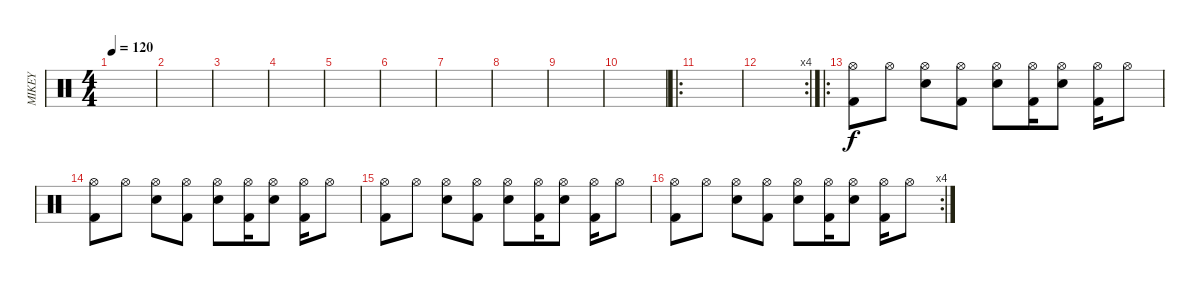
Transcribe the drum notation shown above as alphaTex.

\track ("MIKEY" "MIKEY") {instrument percussion}
\staff {score}
\articulation defaults
\ts (4 4)
\tempo 120
\clef neutral
\ks c
|
|
|
|
|
|
|
|
|
|
\ro
|
\rc 4
|
\ro
("Kick (hit) 2" "Hi-Hat (open)").8{dy f} "Hi-Hat (open)".8 ("Snare (hit) 2" "Hi-Hat (open)").8 ("Kick (hit) 2" "Hi-Hat (open)").8 ("Snare (hit) 2" "Hi-Hat (open)").8 ("Kick (hit) 2" "Hi-Hat (open)").16 ("Snare (hit) 2" "Hi-Hat (open)").8 ("Kick (hit) 2" "Hi-Hat (open)").16 "Hi-Hat (open)".8 |
("Kick (hit) 2" "Hi-Hat (open)").8 "Hi-Hat (open)".8 ("Snare (hit) 2" "Hi-Hat (open)").8 ("Kick (hit) 2" "Hi-Hat (open)").8 ("Snare (hit) 2" "Hi-Hat (open)").8 ("Kick (hit) 2" "Hi-Hat (open)").16 ("Snare (hit) 2" "Hi-Hat (open)").8 ("Kick (hit) 2" "Hi-Hat (open)").16 "Hi-Hat (open)".8 |
("Kick (hit) 2" "Hi-Hat (open)").8 "Hi-Hat (open)".8 ("Snare (hit) 2" "Hi-Hat (open)").8 ("Kick (hit) 2" "Hi-Hat (open)").8 ("Snare (hit) 2" "Hi-Hat (open)").8 ("Kick (hit) 2" "Hi-Hat (open)").16 ("Snare (hit) 2" "Hi-Hat (open)").8 ("Kick (hit) 2" "Hi-Hat (open)").16 "Hi-Hat (open)".8 |
\rc 4
("Kick (hit) 2" "Hi-Hat (open)").8 "Hi-Hat (open)".8 ("Snare (hit) 2" "Hi-Hat (open)").8 ("Kick (hit) 2" "Hi-Hat (open)").8 ("Snare (hit) 2" "Hi-Hat (open)").8 ("Kick (hit) 2" "Hi-Hat (open)").16 ("Snare (hit) 2" "Hi-Hat (open)").8 ("Kick (hit) 2" "Hi-Hat (open)").16 "Hi-Hat (open)".8
